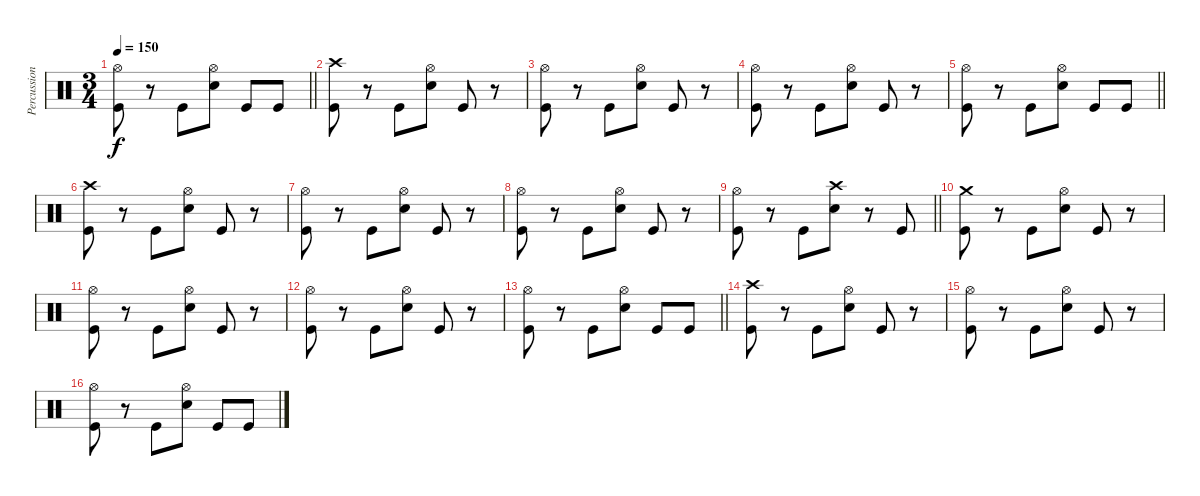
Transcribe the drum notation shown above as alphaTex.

\track ("Percussion" "Percussion") {instrument percussion}
\staff {score}
\articulation defaults
\ts (3 4)
\tempo 150
\clef neutral
\barLineRight lightlight
\ks c
("Hi-Hat (open)" "Kick (hit)").8{dy f} r.8 "Kick (hit)".8 ("Hi-Hat (open)" "Snare (hit) 2").8 "Kick (hit)".8 "Kick (hit)".8 |
("Crash high (hit)" "Kick (hit)").8 r.8 "Kick (hit)".8 ("Hi-Hat (open)" "Snare (hit) 2").8 "Kick (hit)".8 r.8 |
("Hi-Hat (open)" "Kick (hit)").8 r.8 "Kick (hit)".8 ("Hi-Hat (open)" "Snare (hit) 2").8 "Kick (hit)".8 r.8 |
("Hi-Hat (open)" "Kick (hit)").8 r.8 "Kick (hit)".8 ("Hi-Hat (open)" "Snare (hit) 2").8 "Kick (hit)".8 r.8 |
\barLineRight lightlight
("Hi-Hat (open)" "Kick (hit)").8 r.8 "Kick (hit)".8 ("Hi-Hat (open)" "Snare (hit) 2").8 "Kick (hit)".8 "Kick (hit)".8 |
("Crash high (hit)" "Kick (hit)").8 r.8 "Kick (hit)".8 ("Hi-Hat (open)" "Snare (hit) 2").8 "Kick (hit)".8 r.8 |
("Hi-Hat (open)" "Kick (hit)").8 r.8 "Kick (hit)".8 ("Hi-Hat (open)" "Snare (hit) 2").8 "Kick (hit)".8 r.8 |
("Hi-Hat (open)" "Kick (hit)").8 r.8 "Kick (hit)".8 ("Hi-Hat (open)" "Snare (hit) 2").8 "Kick (hit)".8 r.8 |
\barLineRight lightlight
("Hi-Hat (open)" "Kick (hit)").8 r.8 "Kick (hit)".8 ("Crash high (hit)" "Snare (hit) 2").8 r.8 "Kick (hit)".8 |
("Crash medium (hit)" "Kick (hit)").8 r.8 "Kick (hit)".8 ("Hi-Hat (open)" "Snare (hit) 2").8 "Kick (hit)".8 r.8 |
("Hi-Hat (open)" "Kick (hit)").8 r.8 "Kick (hit)".8 ("Hi-Hat (open)" "Snare (hit) 2").8 "Kick (hit)".8 r.8 |
("Hi-Hat (open)" "Kick (hit)").8 r.8 "Kick (hit)".8 ("Hi-Hat (open)" "Snare (hit) 2").8 "Kick (hit)".8 r.8 |
\barLineRight lightlight
("Hi-Hat (open)" "Kick (hit)").8 r.8 "Kick (hit)".8 ("Hi-Hat (open)" "Snare (hit) 2").8 "Kick (hit)".8 "Kick (hit)".8 |
("Crash high (hit)" "Kick (hit)").8 r.8 "Kick (hit)".8 ("Hi-Hat (open)" "Snare (hit) 2").8 "Kick (hit)".8 r.8 |
("Hi-Hat (open)" "Kick (hit)").8 r.8 "Kick (hit)".8 ("Hi-Hat (open)" "Snare (hit) 2").8 "Kick (hit)".8 r.8 |
("Hi-Hat (open)" "Kick (hit)").8 r.8 "Kick (hit)".8 ("Hi-Hat (open)" "Snare (hit) 2").8 "Kick (hit)".8 "Kick (hit)".8
